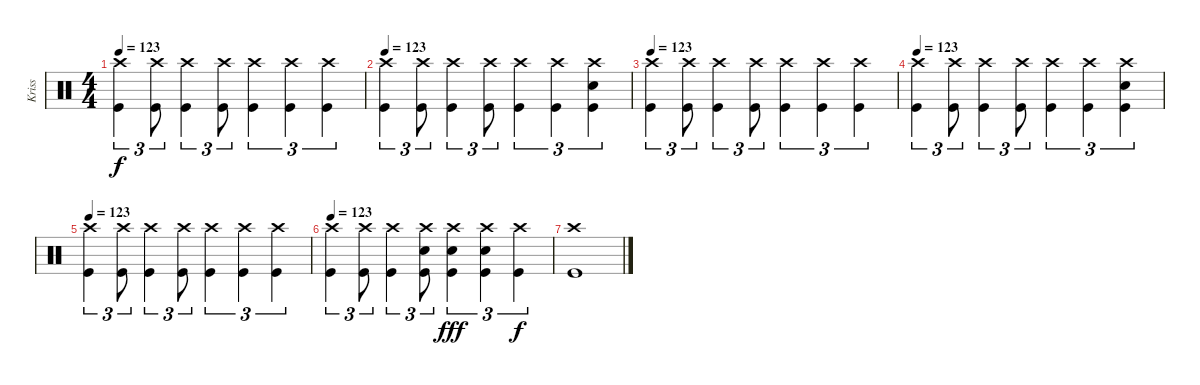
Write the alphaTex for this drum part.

\track ("Kriss" "Kriss") {instrument percussion}
\staff {score}
\articulation defaults
\ts (4 4)
\tempo 123
\clef neutral
\ks c
("Crash high (hit)" "Kick (hit)").4{tu (3 2) dy f} ("Crash high (hit)" "Kick (hit)").8{tu (3 2)} ("Crash high (hit)" "Kick (hit)").4{tu (3 2)} ("Crash high (hit)" "Kick (hit)").8{tu (3 2)} ("Crash high (hit)" "Kick (hit)").4{tu (3 2)} ("Crash high (hit)" "Kick (hit)").4{tu (3 2)} ("Crash high (hit)" "Kick (hit)").4{tu (3 2)} |
\tempo 123
("Crash high (hit)" "Kick (hit)").4{tu (3 2)} ("Crash high (hit)" "Kick (hit)").8{tu (3 2)} ("Crash high (hit)" "Kick (hit)").4{tu (3 2)} ("Crash high (hit)" "Kick (hit)").8{tu (3 2)} ("Crash high (hit)" "Kick (hit)").4{tu (3 2)} ("Crash high (hit)" "Kick (hit)").4{tu (3 2)} ("Crash high (hit)" "Snare (hit) 2" "Kick (hit)").4{tu (3 2)} |
\tempo 123
("Crash high (hit)" "Kick (hit)").4{tu (3 2)} ("Crash high (hit)" "Kick (hit)").8{tu (3 2)} ("Crash high (hit)" "Kick (hit)").4{tu (3 2)} ("Crash high (hit)" "Kick (hit)").8{tu (3 2)} ("Crash high (hit)" "Kick (hit)").4{tu (3 2)} ("Crash high (hit)" "Kick (hit)").4{tu (3 2)} ("Crash high (hit)" "Kick (hit)").4{tu (3 2)} |
\tempo 123
("Crash high (hit)" "Kick (hit)").4{tu (3 2)} ("Crash high (hit)" "Kick (hit)").8{tu (3 2)} ("Crash high (hit)" "Kick (hit)").4{tu (3 2)} ("Crash high (hit)" "Kick (hit)").8{tu (3 2)} ("Crash high (hit)" "Kick (hit)").4{tu (3 2)} ("Crash high (hit)" "Kick (hit)").4{tu (3 2)} ("Crash high (hit)" "Snare (hit) 2" "Kick (hit)").4{tu (3 2)} |
\tempo 123
("Crash high (hit)" "Kick (hit)").4{tu (3 2)} ("Crash high (hit)" "Kick (hit)").8{tu (3 2)} ("Crash high (hit)" "Kick (hit)").4{tu (3 2)} ("Crash high (hit)" "Kick (hit)").8{tu (3 2)} ("Crash high (hit)" "Kick (hit)").4{tu (3 2)} ("Crash high (hit)" "Kick (hit)").4{tu (3 2)} ("Crash high (hit)" "Kick (hit)").4{tu (3 2)} |
\tempo 123
("Crash high (hit)" "Kick (hit)").4{tu (3 2)} ("Crash high (hit)" "Kick (hit)").8{tu (3 2)} ("Crash high (hit)" "Kick (hit)").4{tu (3 2)} ("Crash high (hit)" "Snare (hit) 2" "Kick (hit)").8{tu (3 2)} ("Crash high (hit)" "Snare (hit) 2" "Kick (hit)").4{tu (3 2) dy fff} ("Crash high (hit)" "Snare (hit) 2" "Kick (hit)").4{tu (3 2)} ("Crash high (hit)" "Kick (hit)").4{tu (3 2) dy f} |
("Crash high (hit)" "Kick (hit)").1
